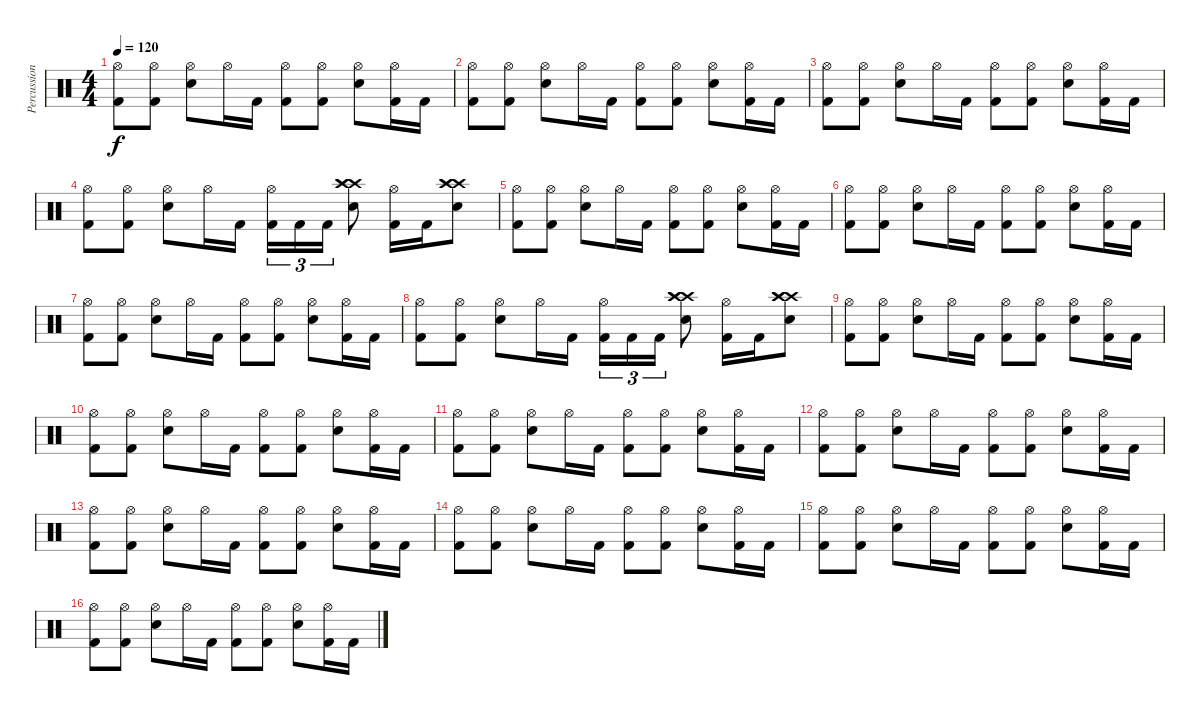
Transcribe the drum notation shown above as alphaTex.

\track ("Percussion" "Percussion") {instrument percussion}
\staff {score}
\articulation defaults
\ts (4 4)
\tempo 120
\clef neutral
\ks c
("Hi-Hat (open)" "Kick (hit) 2").8{dy f} ("Hi-Hat (open)" "Kick (hit) 2").8 ("Hi-Hat (open)" "Electric Snare (hit)").8 "Hi-Hat (open)".16 "Kick (hit) 2".16 ("Hi-Hat (open)" "Kick (hit) 2").8 ("Hi-Hat (open)" "Kick (hit) 2").8 ("Hi-Hat (open)" "Electric Snare (hit)").8 ("Hi-Hat (open)" "Kick (hit) 2").16 "Kick (hit) 2".16 |
("Hi-Hat (open)" "Kick (hit) 2").8 ("Hi-Hat (open)" "Kick (hit) 2").8 ("Hi-Hat (open)" "Electric Snare (hit)").8 "Hi-Hat (open)".16 "Kick (hit) 2".16 ("Hi-Hat (open)" "Kick (hit) 2").8 ("Hi-Hat (open)" "Kick (hit) 2").8 ("Hi-Hat (open)" "Electric Snare (hit)").8 ("Hi-Hat (open)" "Kick (hit) 2").16 "Kick (hit) 2".16 |
("Hi-Hat (open)" "Kick (hit) 2").8 ("Hi-Hat (open)" "Kick (hit) 2").8 ("Hi-Hat (open)" "Electric Snare (hit)").8 "Hi-Hat (open)".16 "Kick (hit) 2".16 ("Hi-Hat (open)" "Kick (hit) 2").8 ("Hi-Hat (open)" "Kick (hit) 2").8 ("Hi-Hat (open)" "Electric Snare (hit)").8 ("Hi-Hat (open)" "Kick (hit) 2").16 "Kick (hit) 2".16 |
("Hi-Hat (open)" "Kick (hit) 2").8 ("Hi-Hat (open)" "Kick (hit) 2").8 ("Hi-Hat (open)" "Electric Snare (hit)").8 "Hi-Hat (open)".16 "Kick (hit) 2".16 ("Hi-Hat (open)" "Kick (hit) 2").16{tu (3 2)} "Kick (hit) 2".16{tu (3 2)} "Kick (hit) 2".16{tu (3 2)} ("Crash high (hit)" "Crash high (hit)" "Crash high (hit)" "Electric Snare (hit)").8 ("Hi-Hat (open)" "Kick (hit) 2").16 "Kick (hit) 2".16 ("Crash high (hit)" "Crash high (hit)" "Crash high (hit)" "Electric Snare (hit)").8 |
("Hi-Hat (open)" "Kick (hit) 2").8 ("Hi-Hat (open)" "Kick (hit) 2").8 ("Hi-Hat (open)" "Electric Snare (hit)").8 "Hi-Hat (open)".16 "Kick (hit) 2".16 ("Hi-Hat (open)" "Kick (hit) 2").8 ("Hi-Hat (open)" "Kick (hit) 2").8 ("Hi-Hat (open)" "Electric Snare (hit)").8 ("Hi-Hat (open)" "Kick (hit) 2").16 "Kick (hit) 2".16 |
("Hi-Hat (open)" "Kick (hit) 2").8 ("Hi-Hat (open)" "Kick (hit) 2").8 ("Hi-Hat (open)" "Electric Snare (hit)").8 "Hi-Hat (open)".16 "Kick (hit) 2".16 ("Hi-Hat (open)" "Kick (hit) 2").8 ("Hi-Hat (open)" "Kick (hit) 2").8 ("Hi-Hat (open)" "Electric Snare (hit)").8 ("Hi-Hat (open)" "Kick (hit) 2").16 "Kick (hit) 2".16 |
("Hi-Hat (open)" "Kick (hit) 2").8 ("Hi-Hat (open)" "Kick (hit) 2").8 ("Hi-Hat (open)" "Electric Snare (hit)").8 "Hi-Hat (open)".16 "Kick (hit) 2".16 ("Hi-Hat (open)" "Kick (hit) 2").8 ("Hi-Hat (open)" "Kick (hit) 2").8 ("Hi-Hat (open)" "Electric Snare (hit)").8 ("Hi-Hat (open)" "Kick (hit) 2").16 "Kick (hit) 2".16 |
("Hi-Hat (open)" "Kick (hit) 2").8 ("Hi-Hat (open)" "Kick (hit) 2").8 ("Hi-Hat (open)" "Electric Snare (hit)").8 "Hi-Hat (open)".16 "Kick (hit) 2".16 ("Hi-Hat (open)" "Kick (hit) 2").16{tu (3 2)} "Kick (hit) 2".16{tu (3 2)} "Kick (hit) 2".16{tu (3 2)} ("Crash high (hit)" "Crash high (hit)" "Crash high (hit)" "Electric Snare (hit)").8 ("Hi-Hat (open)" "Kick (hit) 2").16 "Kick (hit) 2".16 ("Crash high (hit)" "Crash high (hit)" "Crash high (hit)" "Electric Snare (hit)").8 |
("Hi-Hat (open)" "Kick (hit) 2").8 ("Hi-Hat (open)" "Kick (hit) 2").8 ("Hi-Hat (open)" "Electric Snare (hit)").8 "Hi-Hat (open)".16 "Kick (hit) 2".16 ("Hi-Hat (open)" "Kick (hit) 2").8 ("Hi-Hat (open)" "Kick (hit) 2").8 ("Hi-Hat (open)" "Electric Snare (hit)").8 ("Hi-Hat (open)" "Kick (hit) 2").16 "Kick (hit) 2".16 |
("Hi-Hat (open)" "Kick (hit) 2").8 ("Hi-Hat (open)" "Kick (hit) 2").8 ("Hi-Hat (open)" "Electric Snare (hit)").8 "Hi-Hat (open)".16 "Kick (hit) 2".16 ("Hi-Hat (open)" "Kick (hit) 2").8 ("Hi-Hat (open)" "Kick (hit) 2").8 ("Hi-Hat (open)" "Electric Snare (hit)").8 ("Hi-Hat (open)" "Kick (hit) 2").16 "Kick (hit) 2".16 |
("Hi-Hat (open)" "Kick (hit) 2").8 ("Hi-Hat (open)" "Kick (hit) 2").8 ("Hi-Hat (open)" "Electric Snare (hit)").8 "Hi-Hat (open)".16 "Kick (hit) 2".16 ("Hi-Hat (open)" "Kick (hit) 2").8 ("Hi-Hat (open)" "Kick (hit) 2").8 ("Hi-Hat (open)" "Electric Snare (hit)").8 ("Hi-Hat (open)" "Kick (hit) 2").16 "Kick (hit) 2".16 |
("Hi-Hat (open)" "Kick (hit) 2").8 ("Hi-Hat (open)" "Kick (hit) 2").8 ("Hi-Hat (open)" "Electric Snare (hit)").8 "Hi-Hat (open)".16 "Kick (hit) 2".16 ("Hi-Hat (open)" "Kick (hit) 2").8 ("Hi-Hat (open)" "Kick (hit) 2").8 ("Hi-Hat (open)" "Electric Snare (hit)").8 ("Hi-Hat (open)" "Kick (hit) 2").16 "Kick (hit) 2".16 |
("Hi-Hat (open)" "Kick (hit) 2").8 ("Hi-Hat (open)" "Kick (hit) 2").8 ("Hi-Hat (open)" "Electric Snare (hit)").8 "Hi-Hat (open)".16 "Kick (hit) 2".16 ("Hi-Hat (open)" "Kick (hit) 2").8 ("Hi-Hat (open)" "Kick (hit) 2").8 ("Hi-Hat (open)" "Electric Snare (hit)").8 ("Hi-Hat (open)" "Kick (hit) 2").16 "Kick (hit) 2".16 |
("Hi-Hat (open)" "Kick (hit) 2").8 ("Hi-Hat (open)" "Kick (hit) 2").8 ("Hi-Hat (open)" "Electric Snare (hit)").8 "Hi-Hat (open)".16 "Kick (hit) 2".16 ("Hi-Hat (open)" "Kick (hit) 2").8 ("Hi-Hat (open)" "Kick (hit) 2").8 ("Hi-Hat (open)" "Electric Snare (hit)").8 ("Hi-Hat (open)" "Kick (hit) 2").16 "Kick (hit) 2".16 |
("Hi-Hat (open)" "Kick (hit) 2").8 ("Hi-Hat (open)" "Kick (hit) 2").8 ("Hi-Hat (open)" "Electric Snare (hit)").8 "Hi-Hat (open)".16 "Kick (hit) 2".16 ("Hi-Hat (open)" "Kick (hit) 2").8 ("Hi-Hat (open)" "Kick (hit) 2").8 ("Hi-Hat (open)" "Electric Snare (hit)").8 ("Hi-Hat (open)" "Kick (hit) 2").16 "Kick (hit) 2".16 |
("Hi-Hat (open)" "Kick (hit) 2").8 ("Hi-Hat (open)" "Kick (hit) 2").8 ("Hi-Hat (open)" "Electric Snare (hit)").8 "Hi-Hat (open)".16 "Kick (hit) 2".16 ("Hi-Hat (open)" "Kick (hit) 2").8 ("Hi-Hat (open)" "Kick (hit) 2").8 ("Hi-Hat (open)" "Electric Snare (hit)").8 ("Hi-Hat (open)" "Kick (hit) 2").16 "Kick (hit) 2".16
